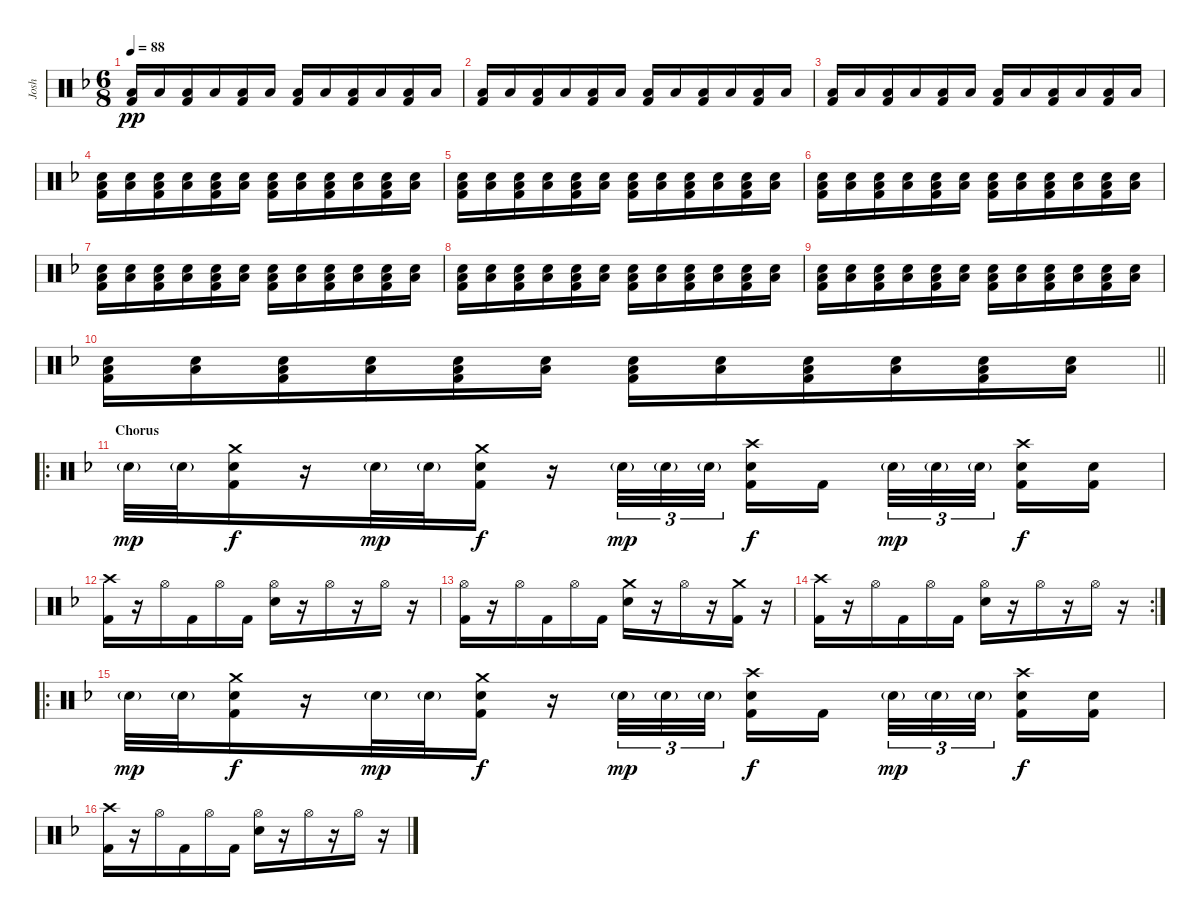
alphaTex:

\track ("Josh" "Josh") {instrument percussion}
\staff {score}
\articulation defaults
\ts (6 8)
\tempo 88
\clef neutral
\ks f
("Low Tom (hit)" "Kick (hit) 2").16{dy pp} "Low Tom (hit)".16 ("Low Tom (hit)" "Kick (hit) 2").16 "Low Tom (hit)".16 ("Low Tom (hit)" "Kick (hit) 2").16 "Low Tom (hit)".16 ("Low Tom (hit)" "Kick (hit) 2").16 "Low Tom (hit)".16 ("Low Tom (hit)" "Kick (hit) 2").16 "Low Tom (hit)".16 ("Low Tom (hit)" "Kick (hit) 2").16 "Low Tom (hit)".16 |
("Low Tom (hit)" "Kick (hit) 2").16 "Low Tom (hit)".16 ("Low Tom (hit)" "Kick (hit) 2").16 "Low Tom (hit)".16 ("Low Tom (hit)" "Kick (hit) 2").16 "Low Tom (hit)".16 ("Low Tom (hit)" "Kick (hit) 2").16 "Low Tom (hit)".16 ("Low Tom (hit)" "Kick (hit) 2").16 "Low Tom (hit)".16 ("Low Tom (hit)" "Kick (hit) 2").16 "Low Tom (hit)".16 |
("Low Tom (hit)" "Kick (hit) 2").16 "Low Tom (hit)".16 ("Low Tom (hit)" "Kick (hit) 2").16 "Low Tom (hit)".16 ("Low Tom (hit)" "Kick (hit) 2").16 "Low Tom (hit)".16 ("Low Tom (hit)" "Kick (hit) 2").16 "Low Tom (hit)".16 ("Low Tom (hit)" "Kick (hit) 2").16 "Low Tom (hit)".16 ("Low Tom (hit)" "Kick (hit) 2").16 "Low Tom (hit)".16 |
("Snare (hit) 2" "Low Tom (hit)" "Kick (hit) 2").16 ("Snare (hit) 2" "Low Tom (hit)").16 ("Snare (hit) 2" "Low Tom (hit)" "Kick (hit) 2").16 ("Snare (hit) 2" "Low Tom (hit)").16 ("Snare (hit) 2" "Low Tom (hit)" "Kick (hit) 2").16 ("Snare (hit) 2" "Low Tom (hit)").16 ("Snare (hit) 2" "Low Tom (hit)" "Kick (hit) 2").16 ("Snare (hit) 2" "Low Tom (hit)").16 ("Snare (hit) 2" "Low Tom (hit)" "Kick (hit) 2").16 ("Snare (hit) 2" "Low Tom (hit)").16 ("Snare (hit) 2" "Low Tom (hit)" "Kick (hit) 2").16 ("Snare (hit) 2" "Low Tom (hit)").16 |
("Snare (hit) 2" "Low Tom (hit)" "Kick (hit) 2").16 ("Snare (hit) 2" "Low Tom (hit)").16 ("Snare (hit) 2" "Low Tom (hit)" "Kick (hit) 2").16 ("Snare (hit) 2" "Low Tom (hit)").16 ("Snare (hit) 2" "Low Tom (hit)" "Kick (hit) 2").16 ("Snare (hit) 2" "Low Tom (hit)").16 ("Snare (hit) 2" "Low Tom (hit)" "Kick (hit) 2").16 ("Snare (hit) 2" "Low Tom (hit)").16 ("Snare (hit) 2" "Low Tom (hit)" "Kick (hit) 2").16 ("Snare (hit) 2" "Low Tom (hit)").16 ("Snare (hit) 2" "Low Tom (hit)" "Kick (hit) 2").16 ("Snare (hit) 2" "Low Tom (hit)").16 |
("Snare (hit) 2" "Low Tom (hit)" "Kick (hit) 2").16 ("Snare (hit) 2" "Low Tom (hit)").16 ("Snare (hit) 2" "Low Tom (hit)" "Kick (hit) 2").16 ("Snare (hit) 2" "Low Tom (hit)").16 ("Snare (hit) 2" "Low Tom (hit)" "Kick (hit) 2").16 ("Snare (hit) 2" "Low Tom (hit)").16 ("Snare (hit) 2" "Low Tom (hit)" "Kick (hit) 2").16 ("Snare (hit) 2" "Low Tom (hit)").16 ("Snare (hit) 2" "Low Tom (hit)" "Kick (hit) 2").16 ("Snare (hit) 2" "Low Tom (hit)").16 ("Snare (hit) 2" "Low Tom (hit)" "Kick (hit) 2").16 ("Snare (hit) 2" "Low Tom (hit)").16 |
("Snare (hit) 2" "Low Tom (hit)" "Kick (hit) 2").16 ("Snare (hit) 2" "Low Tom (hit)").16 ("Snare (hit) 2" "Low Tom (hit)" "Kick (hit) 2").16 ("Snare (hit) 2" "Low Tom (hit)").16 ("Snare (hit) 2" "Low Tom (hit)" "Kick (hit) 2").16 ("Snare (hit) 2" "Low Tom (hit)").16 ("Snare (hit) 2" "Low Tom (hit)" "Kick (hit) 2").16 ("Snare (hit) 2" "Low Tom (hit)").16 ("Snare (hit) 2" "Low Tom (hit)" "Kick (hit) 2").16 ("Snare (hit) 2" "Low Tom (hit)").16 ("Snare (hit) 2" "Low Tom (hit)" "Kick (hit) 2").16 ("Snare (hit) 2" "Low Tom (hit)").16 |
("Snare (hit) 2" "Low Tom (hit)" "Kick (hit) 2").16 ("Snare (hit) 2" "Low Tom (hit)").16 ("Snare (hit) 2" "Low Tom (hit)" "Kick (hit) 2").16 ("Snare (hit) 2" "Low Tom (hit)").16 ("Snare (hit) 2" "Low Tom (hit)" "Kick (hit) 2").16 ("Snare (hit) 2" "Low Tom (hit)").16 ("Snare (hit) 2" "Low Tom (hit)" "Kick (hit) 2").16 ("Snare (hit) 2" "Low Tom (hit)").16 ("Snare (hit) 2" "Low Tom (hit)" "Kick (hit) 2").16 ("Snare (hit) 2" "Low Tom (hit)").16 ("Snare (hit) 2" "Low Tom (hit)" "Kick (hit) 2").16 ("Snare (hit) 2" "Low Tom (hit)").16 |
("Snare (hit) 2" "Low Tom (hit)" "Kick (hit) 2").16 ("Snare (hit) 2" "Low Tom (hit)").16 ("Snare (hit) 2" "Low Tom (hit)" "Kick (hit) 2").16 ("Snare (hit) 2" "Low Tom (hit)").16 ("Snare (hit) 2" "Low Tom (hit)" "Kick (hit) 2").16 ("Snare (hit) 2" "Low Tom (hit)").16 ("Snare (hit) 2" "Low Tom (hit)" "Kick (hit) 2").16 ("Snare (hit) 2" "Low Tom (hit)").16 ("Snare (hit) 2" "Low Tom (hit)" "Kick (hit) 2").16 ("Snare (hit) 2" "Low Tom (hit)").16 ("Snare (hit) 2" "Low Tom (hit)" "Kick (hit) 2").16 ("Snare (hit) 2" "Low Tom (hit)").16 |
\barLineRight lightlight
("Snare (hit) 2" "Low Tom (hit)" "Kick (hit) 2").16 ("Snare (hit) 2" "Low Tom (hit)").16 ("Snare (hit) 2" "Low Tom (hit)" "Kick (hit) 2").16 ("Snare (hit) 2" "Low Tom (hit)").16 ("Snare (hit) 2" "Low Tom (hit)" "Kick (hit) 2").16 ("Snare (hit) 2" "Low Tom (hit)").16 ("Snare (hit) 2" "Low Tom (hit)" "Kick (hit) 2").16 ("Snare (hit) 2" "Low Tom (hit)").16 ("Snare (hit) 2" "Low Tom (hit)" "Kick (hit) 2").16 ("Snare (hit) 2" "Low Tom (hit)").16 ("Snare (hit) 2" "Low Tom (hit)" "Kick (hit) 2").16 ("Snare (hit) 2" "Low Tom (hit)").16 |
\ro
\section ("" "Chorus")
"Snare (hit) 2"{g}.32{dy mp} "Snare (hit) 2"{g}.32 ("Crash medium (hit)" "Snare (hit) 2" "Kick (hit) 2").16{dy f} r.16 "Snare (hit) 2"{g}.32{dy mp} "Snare (hit) 2"{g}.32 ("Crash medium (hit)" "Snare (hit) 2" "Kick (hit) 2").16{dy f} r.16 "Snare (hit) 2"{g}.32{tu (3 2) dy mp} "Snare (hit) 2"{g}.32{tu (3 2)} "Snare (hit) 2"{g}.32{tu (3 2) beam splitsecondary} ("Crash high (hit)" "Snare (hit) 2" "Kick (hit) 2").16{dy f} "Kick (hit) 2".16{beam splitsecondary} "Snare (hit) 2"{g}.32{tu (3 2) dy mp} "Snare (hit) 2"{g}.32{tu (3 2)} "Snare (hit) 2"{g}.32{tu (3 2) beam splitsecondary} ("Crash high (hit)" "Snare (hit) 2" "Kick (hit) 2").16{dy f} ("Snare (hit) 2" "Kick (hit) 2").16 |
("Crash high (hit)" "Kick (hit) 2").16 r.16 "Hi-Hat (open)".16 "Kick (hit) 2".16 "Hi-Hat (open)".16 "Kick (hit) 2".16 ("Hi-Hat (open)" "Snare (hit) 2").16 r.16 "Hi-Hat (open)".16 r.16 "Hi-Hat (open)".16 r.16 |
("Hi-Hat (open)" "Kick (hit) 2").16 r.16 "Hi-Hat (open)".16 "Kick (hit) 2".16 "Hi-Hat (open)".16 "Kick (hit) 2".16 ("Crash medium (hit)" "Snare (hit) 2").16 r.16 "Hi-Hat (open)".16 r.16 ("Crash medium (hit)" "Kick (hit) 2").16 r.16 |
\rc 2
("Crash high (hit)" "Kick (hit) 2").16 r.16 "Hi-Hat (open)".16 "Kick (hit) 2".16 "Hi-Hat (open)".16 "Kick (hit) 2".16 ("Hi-Hat (open)" "Snare (hit) 2").16 r.16 "Hi-Hat (open)".16 r.16 "Hi-Hat (open)".16 r.16 |
\ro "Snare (hit) 2"{g}.32{dy mp} "Snare (hit) 2"{g}.32
("Crash medium (hit)" "Snare (hit) 2" "Kick (hit) 2").16{dy f} r.16 "Snare (hit) 2"{g}.32{dy mp} "Snare (hit) 2"{g}.32 ("Crash medium (hit)" "Snare (hit) 2" "Kick (hit) 2").16{dy f} r.16 "Snare (hit) 2"{g}.32{tu (3 2) dy mp} "Snare (hit) 2"{g}.32{tu (3 2)} "Snare (hit) 2"{g}.32{tu (3 2) beam splitsecondary} ("Crash high (hit)" "Snare (hit) 2" "Kick (hit) 2").16{dy f} "Kick (hit) 2".16{beam splitsecondary} "Snare (hit) 2"{g}.32{tu (3 2) dy mp} "Snare (hit) 2"{g}.32{tu (3 2)} "Snare (hit) 2"{g}.32{tu (3 2) beam splitsecondary} ("Crash high (hit)" "Snare (hit) 2" "Kick (hit) 2").16{dy f} ("Snare (hit) 2" "Kick (hit) 2").16 |
("Crash high (hit)" "Kick (hit) 2").16 r.16 "Hi-Hat (open)".16 "Kick (hit) 2".16 "Hi-Hat (open)".16 "Kick (hit) 2".16 ("Hi-Hat (open)" "Snare (hit) 2").16 r.16 "Hi-Hat (open)".16 r.16 "Hi-Hat (open)".16 r.16
